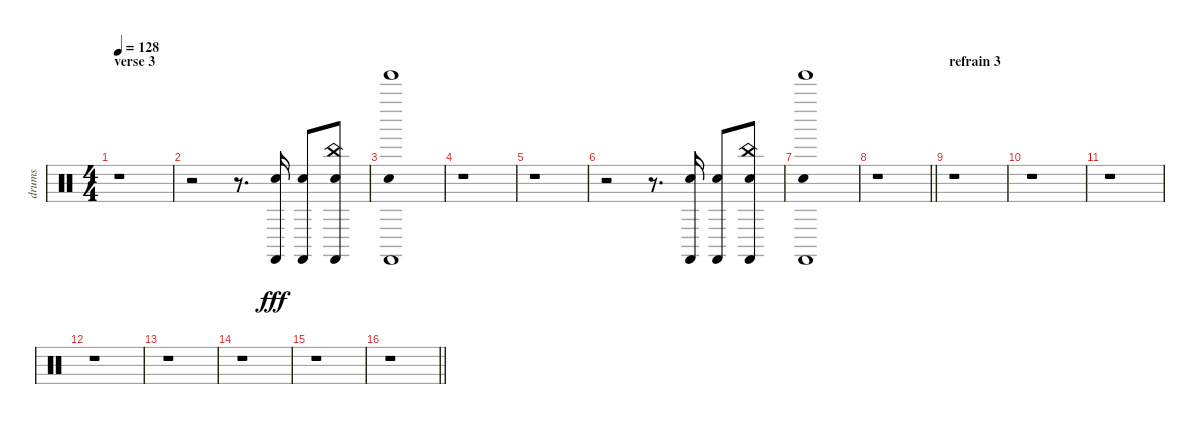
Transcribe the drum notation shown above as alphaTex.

\track ("drums" "drums") {instrument percussion}
\staff {score}
\articulation defaults
\ts (4 4)
\section ("" "verse 3")
\tempo 128
\clef neutral
\ks c
r.1{dy fff} |
r.2 r.8{d} ("Castanets (hit)" "Snare (hit) 2").16{balance 16} ("Castanets (hit)" "Snare (hit) 2").8{balance 0} ("China (hit)" "Castanets (hit)" "Snare (hit) 2").8{balance 16} |
("Metronome (bell)" "Tinkle Bell (hit)" "Castanets (hit)").1{balance 8} |
r.1 |
r.1 |
r.2 r.8{d} ("Castanets (hit)" "Snare (hit) 2").16{balance 16} ("Castanets (hit)" "Snare (hit) 2").8{balance 0} ("China (hit)" "Castanets (hit)" "Snare (hit) 2").8{balance 16} |
("Metronome (bell)" "Tinkle Bell (hit)" "Castanets (hit)").1{balance 8} |
\barLineRight lightlight
r.1 |
\section ("" "refrain 3")
r.1 |
r.1 |
r.1 |
r.1 |
r.1 |
r.1 |
r.1 |
\barLineRight lightlight
r.1
